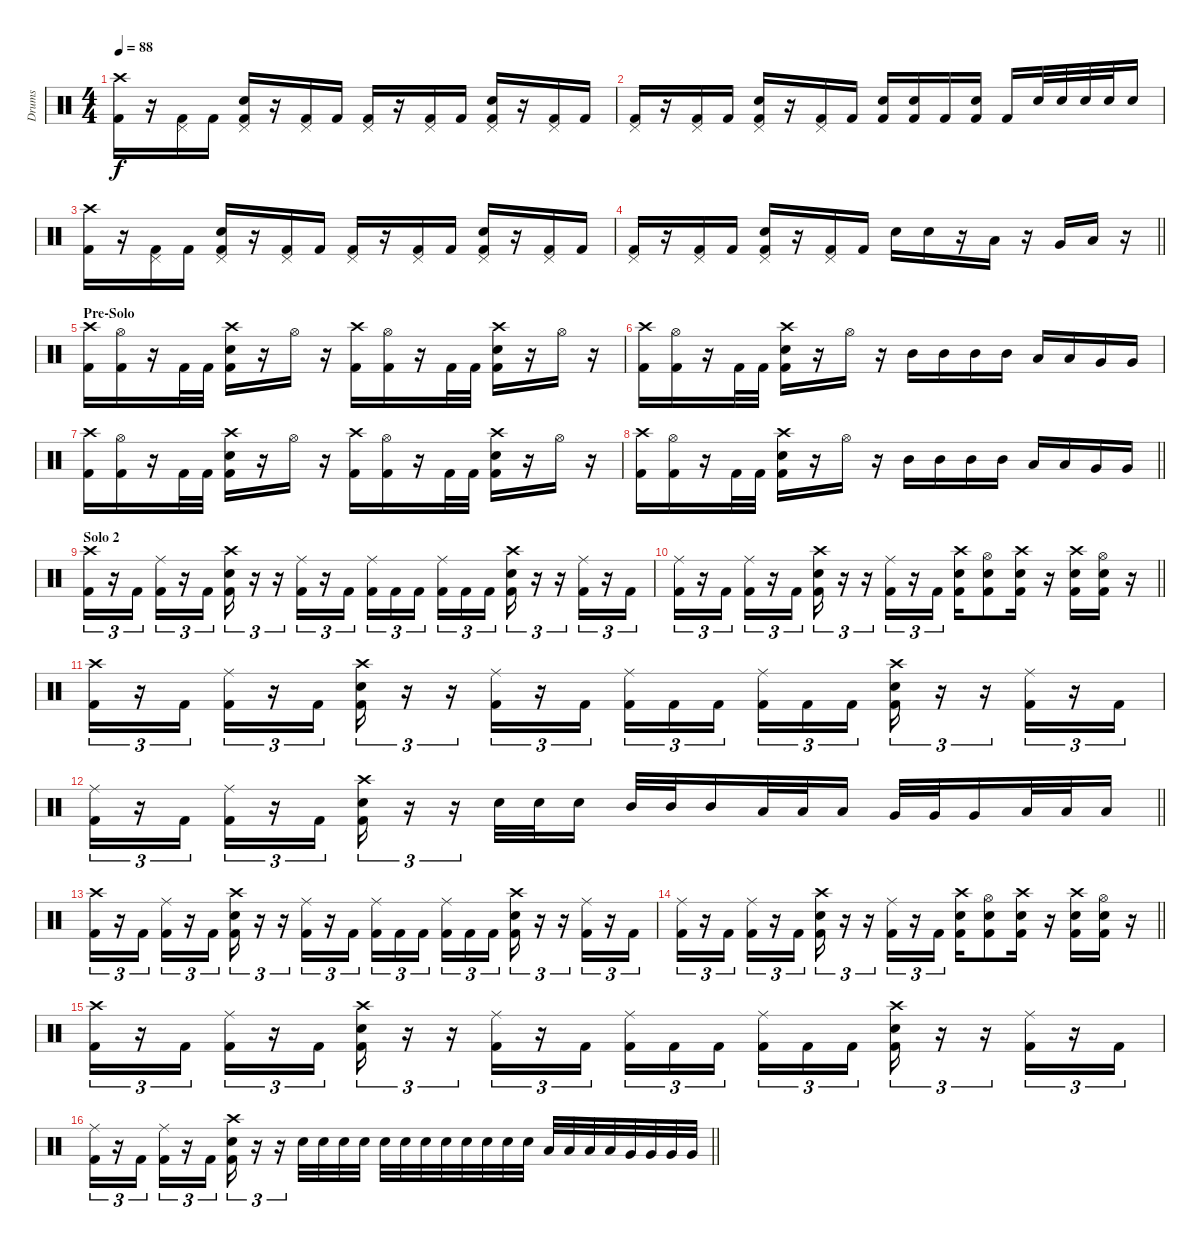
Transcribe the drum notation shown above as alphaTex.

\track ("Drums" "Drums") {instrument percussion}
\staff {score}
\articulation defaults
\ts (4 4)
\tempo 88
\clef neutral
\ks c
("Crash high (hit)" "Kick (hit) 2").16{dy f} r.16 ("Pedal Hi-Hat (hit)" "Kick (hit) 2").16 "Kick (hit) 2".16 ("Pedal Hi-Hat (hit)" "Snare (hit) 2" "Kick (hit) 2").16 r.16 ("Pedal Hi-Hat (hit)" "Kick (hit) 2").16 "Kick (hit) 2".16 ("Pedal Hi-Hat (hit)" "Kick (hit) 2").16 r.16 ("Pedal Hi-Hat (hit)" "Kick (hit) 2").16 "Kick (hit) 2".16 ("Pedal Hi-Hat (hit)" "Snare (hit) 2" "Kick (hit) 2").16 r.16 ("Pedal Hi-Hat (hit)" "Kick (hit) 2").16 "Kick (hit) 2".16 |
("Pedal Hi-Hat (hit)" "Kick (hit) 2").16 r.16 ("Pedal Hi-Hat (hit)" "Kick (hit) 2").16 "Kick (hit) 2".16 ("Pedal Hi-Hat (hit)" "Snare (hit) 2" "Kick (hit) 2").16 r.16 ("Pedal Hi-Hat (hit)" "Kick (hit) 2").16 "Kick (hit) 2".16 ("Snare (hit) 2" "Kick (hit) 2").16 ("Snare (hit) 2" "Kick (hit) 2").16 "Kick (hit) 2".16 ("Snare (hit) 2" "Kick (hit) 2").16 "Kick (hit) 2".16 "Snare (hit) 2".32 "Snare (hit) 2".32 "Snare (hit) 2".32 "Snare (hit) 2".32 "Snare (hit) 2".16 |
("Crash high (hit)" "Kick (hit) 2").16 r.16 ("Pedal Hi-Hat (hit)" "Kick (hit) 2").16 "Kick (hit) 2".16 ("Pedal Hi-Hat (hit)" "Snare (hit) 2" "Kick (hit) 2").16 r.16 ("Pedal Hi-Hat (hit)" "Kick (hit) 2").16 "Kick (hit) 2".16 ("Pedal Hi-Hat (hit)" "Kick (hit) 2").16 r.16 ("Pedal Hi-Hat (hit)" "Kick (hit) 2").16 "Kick (hit) 2".16 ("Pedal Hi-Hat (hit)" "Snare (hit) 2" "Kick (hit) 2").16 r.16 ("Pedal Hi-Hat (hit)" "Kick (hit) 2").16 "Kick (hit) 2".16 |
\barLineRight lightlight
("Pedal Hi-Hat (hit)" "Kick (hit) 2").16 r.16 ("Pedal Hi-Hat (hit)" "Kick (hit) 2").16 "Kick (hit) 2".16 ("Pedal Hi-Hat (hit)" "Snare (hit) 2" "Kick (hit) 2").16 r.16 ("Pedal Hi-Hat (hit)" "Kick (hit) 2").16 "Kick (hit) 2".16 "Snare (hit) 2".16 "Snare (hit) 2".16 r.16 "Low Tom (hit)".16 r.16 "Very Low Tom (hit)".16 "Low Floor Tom (hit)".16 r.16 |
\section ("" "Pre-Solo")
("Crash high (hit)" "Kick (hit) 2").16 ("Hi-Hat (open)" "Kick (hit) 2").16 r.16 "Kick (hit) 2".32 "Kick (hit) 2".32 ("Crash high (hit)" "Snare (hit) 2" "Kick (hit) 2").16 r.16 "Hi-Hat (open)".16 r.16 ("Crash high (hit)" "Kick (hit) 2").16 ("Hi-Hat (open)" "Kick (hit) 2").16 r.16 "Kick (hit) 2".32 "Kick (hit) 2".32 ("Crash high (hit)" "Snare (hit) 2" "Kick (hit) 2").16 r.16 "Hi-Hat (open)".16 r.16 |
("Crash high (hit)" "Kick (hit) 2").16 ("Hi-Hat (open)" "Kick (hit) 2").16 r.16 "Kick (hit) 2".32 "Kick (hit) 2".32 ("Crash high (hit)" "Snare (hit) 2" "Kick (hit) 2").16 r.16 "Hi-Hat (open)".16 r.16 "Mid Tom (hit)".16 "Mid Tom (hit)".16 "Mid Tom (hit)".16 "Mid Tom (hit)".16 "Low Tom (hit)".16 "Low Tom (hit)".16 "Very Low Tom (hit)".16 "Very Low Tom (hit)".16 |
("Crash high (hit)" "Kick (hit) 2").16 ("Hi-Hat (open)" "Kick (hit) 2").16 r.16 "Kick (hit) 2".32 "Kick (hit) 2".32 ("Crash high (hit)" "Snare (hit) 2" "Kick (hit) 2").16 r.16 "Hi-Hat (open)".16 r.16 ("Crash high (hit)" "Kick (hit) 2").16 ("Hi-Hat (open)" "Kick (hit) 2").16 r.16 "Kick (hit) 2".32 "Kick (hit) 2".32 ("Crash high (hit)" "Snare (hit) 2" "Kick (hit) 2").16 r.16 "Hi-Hat (open)".16 r.16 |
\barLineRight lightlight
("Crash high (hit)" "Kick (hit) 2").16 ("Hi-Hat (open)" "Kick (hit) 2").16 r.16 "Kick (hit) 2".32 "Kick (hit) 2".32 ("Crash high (hit)" "Snare (hit) 2" "Kick (hit) 2").16 r.16 "Hi-Hat (open)".16 r.16 "Mid Tom (hit)".16 "Mid Tom (hit)".16 "Mid Tom (hit)".16 "Mid Tom (hit)".16 "Low Tom (hit)".16 "Low Tom (hit)".16 "Very Low Tom (hit)".16 "Very Low Tom (hit)".16 |
\section ("" "Solo 2")
("Crash high (hit)" "Kick (hit) 2").16{tu (3 2)} r.16{tu (3 2)} "Kick (hit) 2".16{tu (3 2)} ("Ride (middle)" "Kick (hit) 2").16{tu (3 2)} r.16{tu (3 2)} "Kick (hit) 2".16{tu (3 2)} ("Crash high (hit)" "Snare (hit) 2" "Kick (hit) 2").16{tu (3 2)} r.16{tu (3 2)} r.16{tu (3 2)} ("Ride (middle)" "Kick (hit) 2").16{tu (3 2)} r.16{tu (3 2)} "Kick (hit) 2".16{tu (3 2)} ("Ride (middle)" "Kick (hit) 2").16{tu (3 2)} "Kick (hit) 2".16{tu (3 2)} "Kick (hit) 2".16{tu (3 2) beam splitsecondary} ("Ride (middle)" "Kick (hit) 2").16{tu (3 2)} "Kick (hit) 2".16{tu (3 2)} "Kick (hit) 2".16{tu (3 2)} ("Crash high (hit)" "Snare (hit) 2" "Kick (hit) 2").16{tu (3 2)} r.16{tu (3 2)} r.16{tu (3 2)} ("Ride (middle)" "Kick (hit) 2").16{tu (3 2)} r.16{tu (3 2)} "Kick (hit) 2".16{tu (3 2)} |
\barLineRight lightlight
("Ride (middle)" "Kick (hit) 2").16{tu (3 2)} r.16{tu (3 2)} "Kick (hit) 2".16{tu (3 2)} ("Ride (middle)" "Kick (hit) 2").16{tu (3 2)} r.16{tu (3 2)} "Kick (hit) 2".16{tu (3 2)} ("Crash high (hit)" "Snare (hit) 2" "Kick (hit) 2").16{tu (3 2)} r.16{tu (3 2)} r.16{tu (3 2)} ("Ride (middle)" "Kick (hit) 2").16{tu (3 2)} r.16{tu (3 2)} "Kick (hit) 2".16{tu (3 2)} ("Crash high (hit)" "Snare (hit) 2" "Kick (hit) 2").16 ("Hi-Hat (open)" "Snare (hit) 2" "Kick (hit) 2").8 ("Crash high (hit)" "Snare (hit) 2" "Kick (hit) 2").16 r.16 ("Crash high (hit)" "Snare (hit) 2" "Kick (hit) 2").16 ("Hi-Hat (open)" "Snare (hit) 2" "Kick (hit) 2").16 r.16 |
("Crash high (hit)" "Kick (hit) 2").16{tu (3 2)} r.16{tu (3 2)} "Kick (hit) 2".16{tu (3 2)} ("Ride (middle)" "Kick (hit) 2").16{tu (3 2)} r.16{tu (3 2)} "Kick (hit) 2".16{tu (3 2)} ("Crash high (hit)" "Snare (hit) 2" "Kick (hit) 2").16{tu (3 2)} r.16{tu (3 2)} r.16{tu (3 2)} ("Ride (middle)" "Kick (hit) 2").16{tu (3 2)} r.16{tu (3 2)} "Kick (hit) 2".16{tu (3 2)} ("Ride (middle)" "Kick (hit) 2").16{tu (3 2)} "Kick (hit) 2".16{tu (3 2)} "Kick (hit) 2".16{tu (3 2) beam splitsecondary} ("Ride (middle)" "Kick (hit) 2").16{tu (3 2)} "Kick (hit) 2".16{tu (3 2)} "Kick (hit) 2".16{tu (3 2)} ("Crash high (hit)" "Snare (hit) 2" "Kick (hit) 2").16{tu (3 2)} r.16{tu (3 2)} r.16{tu (3 2)} ("Ride (middle)" "Kick (hit) 2").16{tu (3 2)} r.16{tu (3 2)} "Kick (hit) 2".16{tu (3 2)} |
\barLineRight lightlight
("Ride (middle)" "Kick (hit) 2").16{tu (3 2)} r.16{tu (3 2)} "Kick (hit) 2".16{tu (3 2)} ("Ride (middle)" "Kick (hit) 2").16{tu (3 2)} r.16{tu (3 2)} "Kick (hit) 2".16{tu (3 2)} ("Crash high (hit)" "Snare (hit) 2" "Kick (hit) 2").16{tu (3 2)} r.16{tu (3 2)} r.16{tu (3 2)} "Snare (hit) 2".32 "Snare (hit) 2".32 "Snare (hit) 2".16 "Mid Tom (hit)".32 "Mid Tom (hit)".32 "Mid Tom (hit)".16 "Low Tom (hit)".32 "Low Tom (hit)".32 "Low Tom (hit)".16 "Very Low Tom (hit)".32 "Very Low Tom (hit)".32 "Very Low Tom (hit)".16 "Low Floor Tom (hit)".32 "Low Floor Tom (hit)".32 "Low Floor Tom (hit)".16 |
("Crash high (hit)" "Kick (hit) 2").16{tu (3 2)} r.16{tu (3 2)} "Kick (hit) 2".16{tu (3 2)} ("Ride (middle)" "Kick (hit) 2").16{tu (3 2)} r.16{tu (3 2)} "Kick (hit) 2".16{tu (3 2)} ("Crash high (hit)" "Snare (hit) 2" "Kick (hit) 2").16{tu (3 2)} r.16{tu (3 2)} r.16{tu (3 2)} ("Ride (middle)" "Kick (hit) 2").16{tu (3 2)} r.16{tu (3 2)} "Kick (hit) 2".16{tu (3 2)} ("Ride (middle)" "Kick (hit) 2").16{tu (3 2)} "Kick (hit) 2".16{tu (3 2)} "Kick (hit) 2".16{tu (3 2) beam splitsecondary} ("Ride (middle)" "Kick (hit) 2").16{tu (3 2)} "Kick (hit) 2".16{tu (3 2)} "Kick (hit) 2".16{tu (3 2)} ("Crash high (hit)" "Snare (hit) 2" "Kick (hit) 2").16{tu (3 2)} r.16{tu (3 2)} r.16{tu (3 2)} ("Ride (middle)" "Kick (hit) 2").16{tu (3 2)} r.16{tu (3 2)} "Kick (hit) 2".16{tu (3 2)} |
\barLineRight lightlight
("Ride (middle)" "Kick (hit) 2").16{tu (3 2)} r.16{tu (3 2)} "Kick (hit) 2".16{tu (3 2)} ("Ride (middle)" "Kick (hit) 2").16{tu (3 2)} r.16{tu (3 2)} "Kick (hit) 2".16{tu (3 2)} ("Crash high (hit)" "Snare (hit) 2" "Kick (hit) 2").16{tu (3 2)} r.16{tu (3 2)} r.16{tu (3 2)} ("Ride (middle)" "Kick (hit) 2").16{tu (3 2)} r.16{tu (3 2)} "Kick (hit) 2".16{tu (3 2)} ("Crash high (hit)" "Snare (hit) 2" "Kick (hit) 2").16 ("Hi-Hat (open)" "Snare (hit) 2" "Kick (hit) 2").8 ("Crash high (hit)" "Snare (hit) 2" "Kick (hit) 2").16 r.16 ("Crash high (hit)" "Snare (hit) 2" "Kick (hit) 2").16 ("Hi-Hat (open)" "Snare (hit) 2" "Kick (hit) 2").16 r.16 |
("Crash high (hit)" "Kick (hit) 2").16{tu (3 2)} r.16{tu (3 2)} "Kick (hit) 2".16{tu (3 2)} ("Ride (middle)" "Kick (hit) 2").16{tu (3 2)} r.16{tu (3 2)} "Kick (hit) 2".16{tu (3 2)} ("Crash high (hit)" "Snare (hit) 2" "Kick (hit) 2").16{tu (3 2)} r.16{tu (3 2)} r.16{tu (3 2)} ("Ride (middle)" "Kick (hit) 2").16{tu (3 2)} r.16{tu (3 2)} "Kick (hit) 2".16{tu (3 2)} ("Ride (middle)" "Kick (hit) 2").16{tu (3 2)} "Kick (hit) 2".16{tu (3 2)} "Kick (hit) 2".16{tu (3 2) beam splitsecondary} ("Ride (middle)" "Kick (hit) 2").16{tu (3 2)} "Kick (hit) 2".16{tu (3 2)} "Kick (hit) 2".16{tu (3 2)} ("Crash high (hit)" "Snare (hit) 2" "Kick (hit) 2").16{tu (3 2)} r.16{tu (3 2)} r.16{tu (3 2)} ("Ride (middle)" "Kick (hit) 2").16{tu (3 2)} r.16{tu (3 2)} "Kick (hit) 2".16{tu (3 2)} |
\barLineRight lightlight
("Ride (middle)" "Kick (hit) 2").16{tu (3 2)} r.16{tu (3 2)} "Kick (hit) 2".16{tu (3 2)} ("Ride (middle)" "Kick (hit) 2").16{tu (3 2)} r.16{tu (3 2)} "Kick (hit) 2".16{tu (3 2)} ("Crash high (hit)" "Snare (hit) 2" "Kick (hit) 2").16{tu (3 2)} r.16{tu (3 2)} r.16{tu (3 2)} "Snare (hit) 2".32 "Snare (hit) 2".32 "Snare (hit) 2".32 "Snare (hit) 2".32 "Snare (hit) 2".32 "Snare (hit) 2".32 "Snare (hit) 2".32 "Snare (hit) 2".32 "Snare (hit) 2".32 "Snare (hit) 2".32 "Snare (hit) 2".32 "Snare (hit) 2".32 "Low Tom (hit)".32 "Low Tom (hit)".32 "Low Tom (hit)".32 "Low Tom (hit)".32 "Very Low Tom (hit)".32 "Very Low Tom (hit)".32 "Very Low Tom (hit)".32 "Very Low Tom (hit)".32
